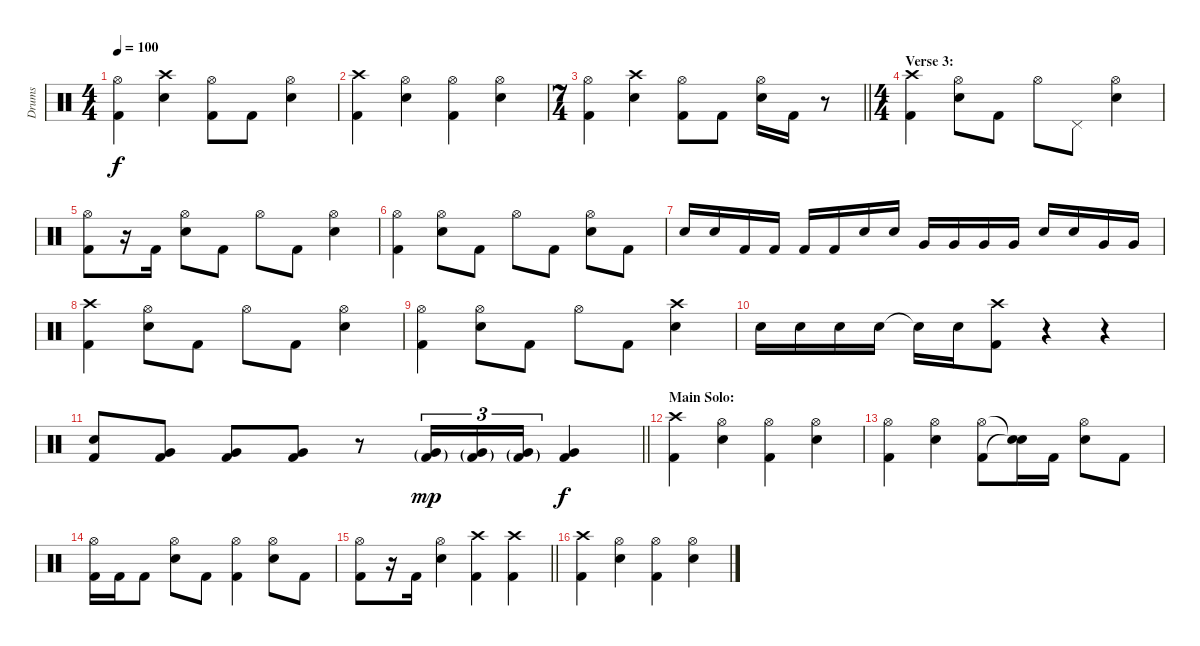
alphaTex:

\track ("Drums" "Drums") {instrument percussion}
\staff {score}
\articulation defaults
\ts (4 4)
\tempo 100
\clef neutral
\ks c
("Hi-Hat (open)" "Kick (hit) 2").4{dy f} ("Crash high (hit)" "Electric Snare (hit)").4 ("Hi-Hat (open)" "Kick (hit) 2").8 "Kick (hit) 2".8 ("Hi-Hat (open)" "Electric Snare (hit)").4 |
("Crash high (hit)" "Kick (hit) 2").4 ("Hi-Hat (open)" "Electric Snare (hit)").4 ("Hi-Hat (open)" "Kick (hit) 2").4 ("Hi-Hat (open)" "Electric Snare (hit)").4 |
\ts (7 4)
\barLineRight lightlight
("Hi-Hat (open)" "Kick (hit) 2").4 ("Crash high (hit)" "Electric Snare (hit)").4 ("Hi-Hat (open)" "Kick (hit) 2").8 "Kick (hit) 2".8 ("Hi-Hat (open)" "Electric Snare (hit)").16 "Kick (hit) 2".16 r.8 |
\ts (4 4)
\section ("" "Verse 3:")
("Crash high (hit)" "Kick (hit) 2").4 ("Hi-Hat (open)" "Electric Snare (hit)").8 "Kick (hit) 2".8 "Hi-Hat (open)".8 "Pedal Hi-Hat (hit)".8 ("Hi-Hat (open)" "Electric Snare (hit)").4 |
("Hi-Hat (open)" "Kick (hit) 2").8 r.16 "Kick (hit) 2".16 ("Hi-Hat (open)" "Electric Snare (hit)").8 "Kick (hit) 2".8 "Hi-Hat (open)".8 "Kick (hit) 2".8 ("Hi-Hat (open)" "Electric Snare (hit)").4 |
("Hi-Hat (open)" "Kick (hit) 2").4 ("Hi-Hat (open)" "Electric Snare (hit)").8 "Kick (hit) 2".8 "Hi-Hat (open)".8 "Kick (hit) 2".8 ("Hi-Hat (open)" "Electric Snare (hit)").8 "Kick (hit) 2".8 |
"Electric Snare (hit)".16 "Electric Snare (hit)".16 "Kick (hit) 2".16 "Kick (hit) 2".16 "Kick (hit) 2".16 "Kick (hit) 2".16 "Electric Snare (hit)".16 "Electric Snare (hit)".16 "Very Low Tom (hit)".16 "Very Low Tom (hit)".16 "Very Low Tom (hit)".16 "Very Low Tom (hit)".16 "Electric Snare (hit)".16 "Electric Snare (hit)".16 "Very Low Tom (hit)".16 "Very Low Tom (hit)".16 |
("Crash high (hit)" "Kick (hit) 2").4 ("Hi-Hat (open)" "Electric Snare (hit)").8 "Kick (hit) 2".8 "Hi-Hat (open)".8 "Kick (hit) 2".8 ("Hi-Hat (open)" "Electric Snare (hit)").4 |
("Hi-Hat (open)" "Kick (hit) 2").4 ("Hi-Hat (open)" "Electric Snare (hit)").8 "Kick (hit) 2".8 "Hi-Hat (open)".8 "Kick (hit) 2".8 ("Crash high (hit)" "Electric Snare (hit)").4 |
"Electric Snare (hit)".16 "Electric Snare (hit)".16 "Electric Snare (hit)".16 "Electric Snare (hit)".16 "Snare (hit)"{t}.16 "Electric Snare (hit)".16 ("Crash high (hit)" "Kick (hit) 2").8 r.4 r.4 |
\barLineRight lightlight
("Electric Snare (hit)" "Kick (hit) 2").8 ("Very Low Tom (hit)" "Kick (hit) 2").8 ("Very Low Tom (hit)" "Kick (hit) 2").8 ("Very Low Tom (hit)" "Kick (hit) 2").8 r.8 ("Very Low Tom (hit)"{g} "Kick (hit) 2"{g}).16{tu (3 2) dy mp} ("Very Low Tom (hit)"{g} "Kick (hit) 2"{g}).16{tu (3 2)} ("Very Low Tom (hit)"{g} "Kick (hit) 2"{g}).16{tu (3 2)} ("Very Low Tom (hit)" "Kick (hit) 2").4{dy f} |
\section ("" "Main Solo:")
("Crash high (hit)" "Kick (hit) 2").4 ("Hi-Hat (open)" "Electric Snare (hit)").4 ("Hi-Hat (open)" "Kick (hit) 2").4 ("Hi-Hat (open)" "Electric Snare (hit)").4 |
("Hi-Hat (open)" "Kick (hit) 2").4 ("Hi-Hat (open)" "Electric Snare (hit)").4 ("Hi-Hat (open)" "Kick (hit) 2").8 ("Snare (hit)"{t} "Snare (hit)"{t}).16 "Kick (hit) 2".16 ("Hi-Hat (open)" "Electric Snare (hit)").8 "Kick (hit) 2".8 |
("Hi-Hat (open)" "Kick (hit) 2").16 "Kick (hit) 2".16 "Kick (hit) 2".8 ("Hi-Hat (open)" "Electric Snare (hit)").8 "Kick (hit) 2".8 ("Hi-Hat (open)" "Kick (hit) 2").4 ("Hi-Hat (open)" "Electric Snare (hit)").8 "Kick (hit) 2".8 |
\barLineRight lightlight
("Hi-Hat (open)" "Kick (hit) 2").8 r.16 "Kick (hit) 2".16 ("Hi-Hat (open)" "Electric Snare (hit)").4 ("Crash high (hit)" "Kick (hit) 2").4 ("Crash high (hit)" "Kick (hit) 2").4 |
("Crash high (hit)" "Kick (hit) 2").4 ("Hi-Hat (open)" "Electric Snare (hit)").4 ("Hi-Hat (open)" "Kick (hit) 2").4 ("Hi-Hat (open)" "Electric Snare (hit)").4
